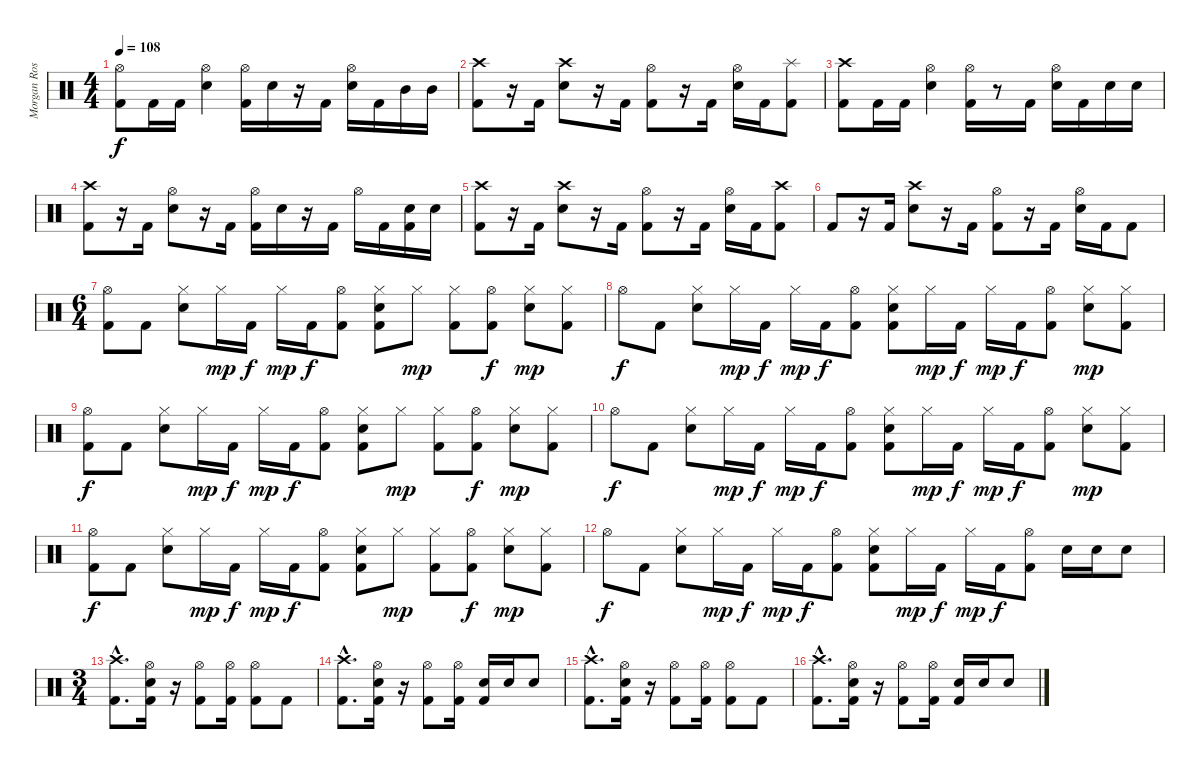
\track ("Morgan Rose - Drums" "Morgan Ros") {instrument percussion}
\staff {score}
\articulation defaults
\ts (4 4)
\tempo 108
\clef neutral
\ks c
("Hi-Hat (open)" "Kick (hit) 2").8{dy f} "Kick (hit) 2".16 "Kick (hit) 2".16 ("Hi-Hat (open)" "Electric Snare (hit)").4 ("Hi-Hat (open)" "Kick (hit) 2").16 "Electric Snare (hit)".16 r.16 "Kick (hit) 2".16 ("Hi-Hat (open)" "Electric Snare (hit)").16 "Kick (hit) 2".16 "Mid Tom (hit)".16 "Mid Tom (hit)".16 |
("Crash high (hit)" "Kick (hit) 2").8 r.16 "Kick (hit) 2".16 ("Crash high (hit)" "Electric Snare (hit)").8 r.16 "Kick (hit) 2".16 ("Hi-Hat (open)" "Kick (hit) 2").8 r.16 "Kick (hit) 2".16 ("Hi-Hat (open)" "Electric Snare (hit)").16 "Kick (hit) 2".16 ("Splash (hit)" "Kick (hit) 2").8 |
("Crash high (hit)" "Kick (hit) 2").8 "Kick (hit) 2".16 "Kick (hit) 2".16 ("Hi-Hat (open)" "Electric Snare (hit)").4 ("Hi-Hat (open)" "Kick (hit) 2").16 r.8 "Kick (hit) 2".16 ("Hi-Hat (open)" "Electric Snare (hit)").16 "Kick (hit) 2".16 "Electric Snare (hit)".16 "Electric Snare (hit)".16 |
("Crash high (hit)" "Kick (hit) 2").8 r.16 "Kick (hit) 2".16 ("Hi-Hat (open)" "Electric Snare (hit)").8 r.16 "Kick (hit) 2".16 ("Hi-Hat (open)" "Kick (hit) 2").16 "Electric Snare (hit)".16 r.16 "Kick (hit) 2".16 "Hi-Hat (open)".16 "Kick (hit) 2".16 ("Electric Snare (hit)" "Kick (hit) 2").16 "Electric Snare (hit)".16 |
("Crash high (hit)" "Kick (hit) 2").8 r.16 "Kick (hit) 2".16 ("Crash high (hit)" "Electric Snare (hit)").8 r.16 "Kick (hit) 2".16 ("Hi-Hat (open)" "Kick (hit) 2").8 r.16 "Kick (hit) 2".16 ("Hi-Hat (open)" "Electric Snare (hit)").16 "Kick (hit) 2".16 ("Crash high (hit)" "Kick (hit) 2").8 |
"Kick (hit) 2".8 r.16 "Kick (hit) 2".16 ("Crash high (hit)" "Electric Snare (hit)").8 r.16 "Kick (hit) 2".16 ("Hi-Hat (open)" "Kick (hit) 2").8 r.16 "Kick (hit) 2".16 ("Hi-Hat (open)" "Electric Snare (hit)").16 "Kick (hit) 2".16 "Kick (hit) 2".8 |
\ts (6 4)
("Hi-Hat (open)" "Kick (hit) 2").8 "Kick (hit) 2".8 ("Hi-Hat (closed)" "Electric Snare (hit)").8 "Hi-Hat (closed)".16{dy mp} "Kick (hit) 2".16{dy f} "Hi-Hat (closed)".16{dy mp} "Kick (hit) 2".16{dy f} ("Hi-Hat (open)" "Kick (hit) 2").8 ("Hi-Hat (closed)" "Electric Snare (hit)" "Kick (hit) 2").8 "Hi-Hat (closed)".8{dy mp} ("Hi-Hat (closed)" "Kick (hit) 2").8 ("Hi-Hat (open)" "Kick (hit) 2").8{dy f} ("Hi-Hat (closed)" "Electric Snare (hit)").8{dy mp} ("Hi-Hat (closed)" "Kick (hit) 2").8 |
"Hi-Hat (open)".8{dy f} "Kick (hit) 2".8 ("Hi-Hat (closed)" "Electric Snare (hit)").8 "Hi-Hat (closed)".16{dy mp} "Kick (hit) 2".16{dy f} "Hi-Hat (closed)".16{dy mp} "Kick (hit) 2".16{dy f} ("Hi-Hat (open)" "Kick (hit) 2").8 ("Hi-Hat (closed)" "Electric Snare (hit)" "Kick (hit) 2").8 "Hi-Hat (closed)".16{dy mp} "Kick (hit) 2".16{dy f} "Hi-Hat (closed)".16{dy mp} "Kick (hit) 2".16{dy f} ("Hi-Hat (open)" "Kick (hit) 2").8 ("Hi-Hat (closed)" "Electric Snare (hit)").8{dy mp} ("Hi-Hat (closed)" "Kick (hit) 2").8 |
("Hi-Hat (open)" "Kick (hit) 2").8{dy f} "Kick (hit) 2".8 ("Hi-Hat (closed)" "Electric Snare (hit)").8 "Hi-Hat (closed)".16{dy mp} "Kick (hit) 2".16{dy f} "Hi-Hat (closed)".16{dy mp} "Kick (hit) 2".16{dy f} ("Hi-Hat (open)" "Kick (hit) 2").8 ("Hi-Hat (closed)" "Electric Snare (hit)" "Kick (hit) 2").8 "Hi-Hat (closed)".8{dy mp} ("Hi-Hat (closed)" "Kick (hit) 2").8 ("Hi-Hat (open)" "Kick (hit) 2").8{dy f} ("Hi-Hat (closed)" "Electric Snare (hit)").8{dy mp} ("Hi-Hat (closed)" "Kick (hit) 2").8 |
"Hi-Hat (open)".8{dy f} "Kick (hit) 2".8 ("Hi-Hat (closed)" "Electric Snare (hit)").8 "Hi-Hat (closed)".16{dy mp} "Kick (hit) 2".16{dy f} "Hi-Hat (closed)".16{dy mp} "Kick (hit) 2".16{dy f} ("Hi-Hat (open)" "Kick (hit) 2").8 ("Hi-Hat (closed)" "Electric Snare (hit)" "Kick (hit) 2").8 "Hi-Hat (closed)".16{dy mp} "Kick (hit) 2".16{dy f} "Hi-Hat (closed)".16{dy mp} "Kick (hit) 2".16{dy f} ("Hi-Hat (open)" "Kick (hit) 2").8 ("Hi-Hat (closed)" "Electric Snare (hit)").8{dy mp} ("Hi-Hat (closed)" "Kick (hit) 2").8 |
("Hi-Hat (open)" "Kick (hit) 2").8{dy f} "Kick (hit) 2".8 ("Hi-Hat (closed)" "Electric Snare (hit)").8 "Hi-Hat (closed)".16{dy mp} "Kick (hit) 2".16{dy f} "Hi-Hat (closed)".16{dy mp} "Kick (hit) 2".16{dy f} ("Hi-Hat (open)" "Kick (hit) 2").8 ("Hi-Hat (closed)" "Electric Snare (hit)" "Kick (hit) 2").8 "Hi-Hat (closed)".8{dy mp} ("Hi-Hat (closed)" "Kick (hit) 2").8 ("Hi-Hat (open)" "Kick (hit) 2").8{dy f} ("Hi-Hat (closed)" "Electric Snare (hit)").8{dy mp} ("Hi-Hat (closed)" "Kick (hit) 2").8 |
"Hi-Hat (open)".8{dy f} "Kick (hit) 2".8 ("Hi-Hat (closed)" "Electric Snare (hit)").8 "Hi-Hat (closed)".16{dy mp} "Kick (hit) 2".16{dy f} "Hi-Hat (closed)".16{dy mp} "Kick (hit) 2".16{dy f} ("Hi-Hat (open)" "Kick (hit) 2").8 ("Hi-Hat (closed)" "Electric Snare (hit)" "Kick (hit) 2").8 "Hi-Hat (closed)".16{dy mp} "Kick (hit) 2".16{dy f} "Hi-Hat (closed)".16{dy mp} "Kick (hit) 2".16{dy f} ("Hi-Hat (open)" "Kick (hit) 2").8 "Electric Snare (hit)".16 "Electric Snare (hit)".16 "Electric Snare (hit)".8 |
\ts (3 4)
("Crash high (hit)"{hac} "Kick (hit) 2"{hac}).8{d} ("Hi-Hat (open)" "Electric Snare (hit)" "Kick (hit) 2").16 r.16 ("Hi-Hat (open)" "Kick (hit) 2").8 ("Hi-Hat (open)" "Kick (hit) 2").16 ("Hi-Hat (open)" "Kick (hit) 2").8 "Kick (hit) 2".8 |
("Crash high (hit)"{hac} "Kick (hit) 2"{hac}).8{d} ("Hi-Hat (open)" "Electric Snare (hit)" "Kick (hit) 2").16 r.16 ("Hi-Hat (open)" "Kick (hit) 2").8 ("Hi-Hat (open)" "Kick (hit) 2").16 ("Electric Snare (hit)" "Kick (hit) 2").16 "Electric Snare (hit)".16 "Electric Snare (hit)".8 |
("Crash high (hit)"{hac} "Kick (hit) 2"{hac}).8{d} ("Hi-Hat (open)" "Electric Snare (hit)" "Kick (hit) 2").16 r.16 ("Hi-Hat (open)" "Kick (hit) 2").8 ("Hi-Hat (open)" "Kick (hit) 2").16 ("Hi-Hat (open)" "Kick (hit) 2").8 "Kick (hit) 2".8 |
("Crash high (hit)"{hac} "Kick (hit) 2"{hac}).8{d} ("Hi-Hat (open)" "Electric Snare (hit)" "Kick (hit) 2").16 r.16 ("Hi-Hat (open)" "Kick (hit) 2").8 ("Hi-Hat (open)" "Kick (hit) 2").16 ("Electric Snare (hit)" "Kick (hit) 2").16 "Electric Snare (hit)".16 "Electric Snare (hit)".8
